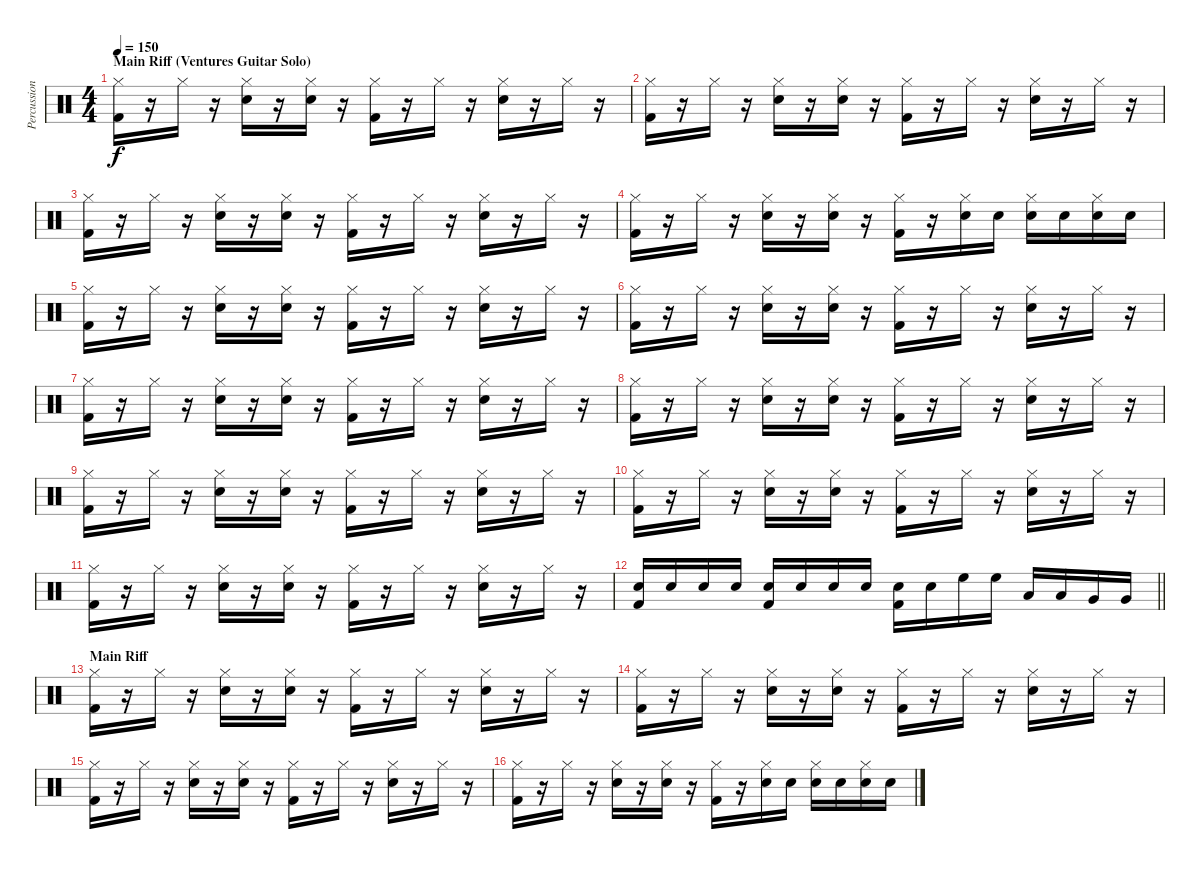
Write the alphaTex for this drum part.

\track ("Percussion" "Percussion") {instrument percussion}
\staff {score}
\articulation defaults
\ts (4 4)
\section ("" "Main Riff (Ventures Guitar Solo)")
\tempo 150
\clef neutral
\ks c
("Hi-Hat (closed)" "Kick (hit) 2").16{dy f} r.16 "Hi-Hat (closed)".16 r.16 ("Hi-Hat (closed)" "Snare (hit) 2").16 r.16 ("Hi-Hat (closed)" "Snare (hit) 2").16 r.16 ("Hi-Hat (closed)" "Kick (hit) 2").16 r.16 "Hi-Hat (closed)".16 r.16 ("Hi-Hat (closed)" "Snare (hit) 2").16 r.16 "Hi-Hat (closed)".16 r.16 |
("Hi-Hat (closed)" "Kick (hit) 2").16 r.16 "Hi-Hat (closed)".16 r.16 ("Hi-Hat (closed)" "Snare (hit) 2").16 r.16 ("Hi-Hat (closed)" "Snare (hit) 2").16 r.16 ("Hi-Hat (closed)" "Kick (hit) 2").16 r.16 "Hi-Hat (closed)".16 r.16 ("Hi-Hat (closed)" "Snare (hit) 2").16 r.16 "Hi-Hat (closed)".16 r.16 |
("Hi-Hat (closed)" "Kick (hit) 2").16 r.16 "Hi-Hat (closed)".16 r.16 ("Hi-Hat (closed)" "Snare (hit) 2").16 r.16 ("Hi-Hat (closed)" "Snare (hit) 2").16 r.16 ("Hi-Hat (closed)" "Kick (hit) 2").16 r.16 "Hi-Hat (closed)".16 r.16 ("Hi-Hat (closed)" "Snare (hit) 2").16 r.16 "Hi-Hat (closed)".16 r.16 |
("Hi-Hat (closed)" "Kick (hit) 2").16 r.16 "Hi-Hat (closed)".16 r.16 ("Hi-Hat (closed)" "Snare (hit) 2").16 r.16 ("Hi-Hat (closed)" "Snare (hit) 2").16 r.16 ("Hi-Hat (closed)" "Kick (hit) 2").16 r.16 ("Hi-Hat (closed)" "Snare (hit) 2").16 "Snare (hit) 2".16 ("Hi-Hat (closed)" "Snare (hit) 2").16 "Snare (hit) 2".16 ("Hi-Hat (closed)" "Snare (hit) 2").16 "Snare (hit) 2".16 |
("Hi-Hat (closed)" "Kick (hit) 2").16 r.16 "Hi-Hat (closed)".16 r.16 ("Hi-Hat (closed)" "Snare (hit) 2").16 r.16 ("Hi-Hat (closed)" "Snare (hit) 2").16 r.16 ("Hi-Hat (closed)" "Kick (hit) 2").16 r.16 "Hi-Hat (closed)".16 r.16 ("Hi-Hat (closed)" "Snare (hit) 2").16 r.16 "Hi-Hat (closed)".16 r.16 |
("Hi-Hat (closed)" "Kick (hit) 2").16 r.16 "Hi-Hat (closed)".16 r.16 ("Hi-Hat (closed)" "Snare (hit) 2").16 r.16 ("Hi-Hat (closed)" "Snare (hit) 2").16 r.16 ("Hi-Hat (closed)" "Kick (hit) 2").16 r.16 "Hi-Hat (closed)".16 r.16 ("Hi-Hat (closed)" "Snare (hit) 2").16 r.16 "Hi-Hat (closed)".16 r.16 |
("Hi-Hat (closed)" "Kick (hit) 2").16 r.16 "Hi-Hat (closed)".16 r.16 ("Hi-Hat (closed)" "Snare (hit) 2").16 r.16 ("Hi-Hat (closed)" "Snare (hit) 2").16 r.16 ("Hi-Hat (closed)" "Kick (hit) 2").16 r.16 "Hi-Hat (closed)".16 r.16 ("Hi-Hat (closed)" "Snare (hit) 2").16 r.16 "Hi-Hat (closed)".16 r.16 |
("Hi-Hat (closed)" "Kick (hit) 2").16 r.16 "Hi-Hat (closed)".16 r.16 ("Hi-Hat (closed)" "Snare (hit) 2").16 r.16 ("Hi-Hat (closed)" "Snare (hit) 2").16 r.16 ("Hi-Hat (closed)" "Kick (hit) 2").16 r.16 "Hi-Hat (closed)".16 r.16 ("Hi-Hat (closed)" "Snare (hit) 2").16 r.16 "Hi-Hat (closed)".16 r.16 |
("Hi-Hat (closed)" "Kick (hit) 2").16 r.16 "Hi-Hat (closed)".16 r.16 ("Hi-Hat (closed)" "Snare (hit) 2").16 r.16 ("Hi-Hat (closed)" "Snare (hit) 2").16 r.16 ("Hi-Hat (closed)" "Kick (hit) 2").16 r.16 "Hi-Hat (closed)".16 r.16 ("Hi-Hat (closed)" "Snare (hit) 2").16 r.16 "Hi-Hat (closed)".16 r.16 |
("Hi-Hat (closed)" "Kick (hit) 2").16 r.16 "Hi-Hat (closed)".16 r.16 ("Hi-Hat (closed)" "Snare (hit) 2").16 r.16 ("Hi-Hat (closed)" "Snare (hit) 2").16 r.16 ("Hi-Hat (closed)" "Kick (hit) 2").16 r.16 "Hi-Hat (closed)".16 r.16 ("Hi-Hat (closed)" "Snare (hit) 2").16 r.16 "Hi-Hat (closed)".16 r.16 |
("Hi-Hat (closed)" "Kick (hit) 2").16 r.16 "Hi-Hat (closed)".16 r.16 ("Hi-Hat (closed)" "Snare (hit) 2").16 r.16 ("Hi-Hat (closed)" "Snare (hit) 2").16 r.16 ("Hi-Hat (closed)" "Kick (hit) 2").16 r.16 "Hi-Hat (closed)".16 r.16 ("Hi-Hat (closed)" "Snare (hit) 2").16 r.16 "Hi-Hat (closed)".16 r.16 |
\barLineRight lightlight
("Snare (hit) 2" "Kick (hit) 2").16 "Snare (hit) 2".16 "Snare (hit) 2".16 "Snare (hit) 2".16 ("Snare (hit) 2" "Kick (hit) 2").16 "Snare (hit) 2".16 "Snare (hit) 2".16 "Snare (hit) 2".16 ("Snare (hit) 2" "Kick (hit) 2").16 "Snare (hit) 2".16 "High Floor Tom (hit)".16 "High Floor Tom (hit)".16 "Low Tom (hit)".16 "Low Tom (hit)".16 "Very Low Tom (hit)".16 "Very Low Tom (hit)".16 |
\section ("" "Main Riff")
("Hi-Hat (closed)" "Kick (hit) 2").16 r.16 "Hi-Hat (closed)".16 r.16 ("Hi-Hat (closed)" "Snare (hit) 2").16 r.16 ("Hi-Hat (closed)" "Snare (hit) 2").16 r.16 ("Hi-Hat (closed)" "Kick (hit) 2").16 r.16 "Hi-Hat (closed)".16 r.16 ("Hi-Hat (closed)" "Snare (hit) 2").16 r.16 "Hi-Hat (closed)".16 r.16 |
("Hi-Hat (closed)" "Kick (hit) 2").16 r.16 "Hi-Hat (closed)".16 r.16 ("Hi-Hat (closed)" "Snare (hit) 2").16 r.16 ("Hi-Hat (closed)" "Snare (hit) 2").16 r.16 ("Hi-Hat (closed)" "Kick (hit) 2").16 r.16 "Hi-Hat (closed)".16 r.16 ("Hi-Hat (closed)" "Snare (hit) 2").16 r.16 "Hi-Hat (closed)".16 r.16 |
("Hi-Hat (closed)" "Kick (hit) 2").16 r.16 "Hi-Hat (closed)".16 r.16 ("Hi-Hat (closed)" "Snare (hit) 2").16 r.16 ("Hi-Hat (closed)" "Snare (hit) 2").16 r.16 ("Hi-Hat (closed)" "Kick (hit) 2").16 r.16 "Hi-Hat (closed)".16 r.16 ("Hi-Hat (closed)" "Snare (hit) 2").16 r.16 "Hi-Hat (closed)".16 r.16 |
("Hi-Hat (closed)" "Kick (hit) 2").16 r.16 "Hi-Hat (closed)".16 r.16 ("Hi-Hat (closed)" "Snare (hit) 2").16 r.16 ("Hi-Hat (closed)" "Snare (hit) 2").16 r.16 ("Hi-Hat (closed)" "Kick (hit) 2").16 r.16 ("Hi-Hat (closed)" "Snare (hit) 2").16 "Snare (hit) 2".16 ("Hi-Hat (closed)" "Snare (hit) 2").16 "Snare (hit) 2".16 ("Hi-Hat (closed)" "Snare (hit) 2").16 "Snare (hit) 2".16
